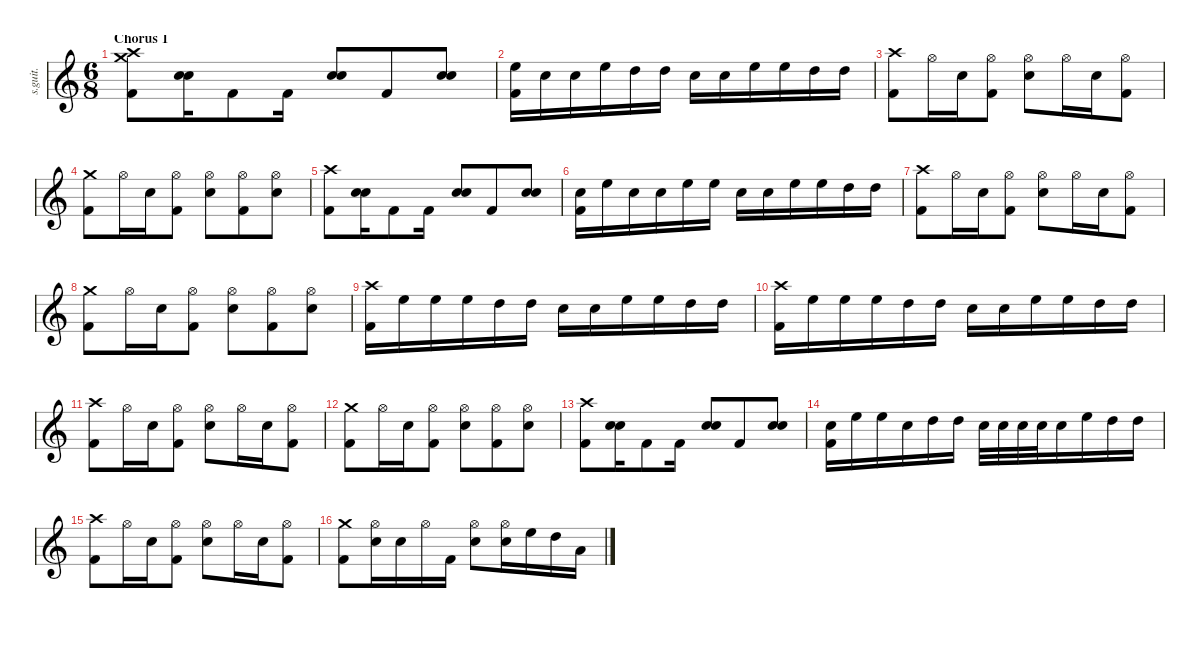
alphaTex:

\defaultSystemsLayout 4
\hideDynamics
\bracketExtendMode nobrackets
\track ("John Dolmayan" "s.guit.") {instrument percussion}
\staff {score}
\articulation defaults
\ts (6 8)
\section ("" "Chorus 1")
\tempo (120 hide)
\clef g2
\ks c
("Crash medium (hit)" "Crash high (hit)" "Kick (hit) 2").8{lyrics (0 "") lyrics (1 "") lyrics (2 "") lyrics (3 "") lyrics (4 "") dy f} ("Snare (hit) 2" "Snare (hit) 2").16{bu 30 lyrics (0 "") lyrics (1 "") lyrics (2 "") lyrics (3 "") lyrics (4 "")} "Kick (hit) 2".8{lyrics (0 "") lyrics (1 "") lyrics (2 "") lyrics (3 "") lyrics (4 "")} "Kick (hit) 2".16{lyrics (0 "") lyrics (1 "") lyrics (2 "") lyrics (3 "") lyrics (4 "")} ("Snare (hit) 2" "Snare (hit) 2").8{bu 30 lyrics (0 "") lyrics (1 "") lyrics (2 "") lyrics (3 "") lyrics (4 "")} "Kick (hit) 2".8{lyrics (0 "") lyrics (1 "") lyrics (2 "") lyrics (3 "") lyrics (4 "")} ("Snare (hit) 2" "Snare (hit) 2").8{bu 30 lyrics (0 "") lyrics (1 "") lyrics (2 "") lyrics (3 "") lyrics (4 "")} |
("Kick (hit) 2" "High Floor Tom (hit)").16{lyrics (0 "") lyrics (1 "") lyrics (2 "") lyrics (3 "") lyrics (4 "")} "Snare (hit) 2".16{lyrics (0 "") lyrics (1 "") lyrics (2 "") lyrics (3 "") lyrics (4 "")} "Snare (hit) 2".16{lyrics (0 "") lyrics (1 "") lyrics (2 "") lyrics (3 "") lyrics (4 "")} "High Floor Tom (hit)".16{lyrics (0 "") lyrics (1 "") lyrics (2 "") lyrics (3 "") lyrics (4 "")} "High Tom (hit)".16{lyrics (0 "") lyrics (1 "") lyrics (2 "") lyrics (3 "") lyrics (4 "")} "High Tom (hit)".16{lyrics (0 "") lyrics (1 "") lyrics (2 "") lyrics (3 "") lyrics (4 "")} "Snare (hit) 2".16{lyrics (0 "") lyrics (1 "") lyrics (2 "") lyrics (3 "") lyrics (4 "")} "Snare (hit) 2".16{lyrics (0 "") lyrics (1 "") lyrics (2 "") lyrics (3 "") lyrics (4 "")} "High Floor Tom (hit)".16{lyrics (0 "") lyrics (1 "") lyrics (2 "") lyrics (3 "") lyrics (4 "")} "High Floor Tom (hit)".16{lyrics (0 "") lyrics (1 "") lyrics (2 "") lyrics (3 "") lyrics (4 "")} "High Tom (hit)".16{lyrics (0 "") lyrics (1 "") lyrics (2 "") lyrics (3 "") lyrics (4 "")} "High Tom (hit)".16{lyrics (0 "") lyrics (1 "") lyrics (2 "") lyrics (3 "") lyrics (4 "")} |
("Crash high (hit)" "Kick (hit) 2").8{lyrics (0 "") lyrics (1 "") lyrics (2 "") lyrics (3 "") lyrics (4 "")} "Hi-Hat (open)".16{lyrics (0 "") lyrics (1 "") lyrics (2 "") lyrics (3 "") lyrics (4 "")} "Snare (hit) 2".16{lyrics (0 "") lyrics (1 "") lyrics (2 "") lyrics (3 "") lyrics (4 "")} ("Hi-Hat (open)" "Kick (hit) 2").8{lyrics (0 "") lyrics (1 "") lyrics (2 "") lyrics (3 "") lyrics (4 "")} ("Hi-Hat (open)" "Snare (hit) 2").8{lyrics (0 "") lyrics (1 "") lyrics (2 "") lyrics (3 "") lyrics (4 "")} "Hi-Hat (open)".16{lyrics (0 "") lyrics (1 "") lyrics (2 "") lyrics (3 "") lyrics (4 "")} "Snare (hit) 2".16{lyrics (0 "") lyrics (1 "") lyrics (2 "") lyrics (3 "") lyrics (4 "")} ("Hi-Hat (open)" "Kick (hit) 2").8{lyrics (0 "") lyrics (1 "") lyrics (2 "") lyrics (3 "") lyrics (4 "")} |
("Crash medium (hit)" "Kick (hit) 2").8{lyrics (0 "") lyrics (1 "") lyrics (2 "") lyrics (3 "") lyrics (4 "")} "Hi-Hat (open)".16{lyrics (0 "") lyrics (1 "") lyrics (2 "") lyrics (3 "") lyrics (4 "")} "Snare (hit) 2".16{lyrics (0 "") lyrics (1 "") lyrics (2 "") lyrics (3 "") lyrics (4 "")} ("Hi-Hat (open)" "Kick (hit) 2").8{lyrics (0 "") lyrics (1 "") lyrics (2 "") lyrics (3 "") lyrics (4 "")} ("Hi-Hat (open)" "Snare (hit) 2").8{lyrics (0 "") lyrics (1 "") lyrics (2 "") lyrics (3 "") lyrics (4 "")} ("Hi-Hat (open)" "Kick (hit) 2").8{lyrics (0 "") lyrics (1 "") lyrics (2 "") lyrics (3 "") lyrics (4 "")} ("Hi-Hat (open)" "Snare (hit) 2").8{lyrics (0 "") lyrics (1 "") lyrics (2 "") lyrics (3 "") lyrics (4 "")} |
("Crash high (hit)" "Kick (hit) 2").8{lyrics (0 "") lyrics (1 "") lyrics (2 "") lyrics (3 "") lyrics (4 "")} ("Snare (hit) 2" "Snare (hit) 2").16{bu 30 lyrics (0 "") lyrics (1 "") lyrics (2 "") lyrics (3 "") lyrics (4 "")} "Kick (hit) 2".8{lyrics (0 "") lyrics (1 "") lyrics (2 "") lyrics (3 "") lyrics (4 "")} "Kick (hit) 2".16{lyrics (0 "") lyrics (1 "") lyrics (2 "") lyrics (3 "") lyrics (4 "")} ("Snare (hit) 2" "Snare (hit) 2").8{bu 30 lyrics (0 "") lyrics (1 "") lyrics (2 "") lyrics (3 "") lyrics (4 "")} "Kick (hit) 2".8{lyrics (0 "") lyrics (1 "") lyrics (2 "") lyrics (3 "") lyrics (4 "")} ("Snare (hit) 2" "Snare (hit) 2").8{bu 30 lyrics (0 "") lyrics (1 "") lyrics (2 "") lyrics (3 "") lyrics (4 "")} |
("Kick (hit) 2" "Snare (hit) 2").16{lyrics (0 "") lyrics (1 "") lyrics (2 "") lyrics (3 "") lyrics (4 "")} "High Floor Tom (hit)".16{lyrics (0 "") lyrics (1 "") lyrics (2 "") lyrics (3 "") lyrics (4 "")} "Snare (hit) 2".16{lyrics (0 "") lyrics (1 "") lyrics (2 "") lyrics (3 "") lyrics (4 "")} "Snare (hit) 2".16{lyrics (0 "") lyrics (1 "") lyrics (2 "") lyrics (3 "") lyrics (4 "")} "High Floor Tom (hit)".16{lyrics (0 "") lyrics (1 "") lyrics (2 "") lyrics (3 "") lyrics (4 "")} "High Floor Tom (hit)".16{lyrics (0 "") lyrics (1 "") lyrics (2 "") lyrics (3 "") lyrics (4 "")} "Snare (hit) 2".16{lyrics (0 "") lyrics (1 "") lyrics (2 "") lyrics (3 "") lyrics (4 "")} "Snare (hit) 2".16{lyrics (0 "") lyrics (1 "") lyrics (2 "") lyrics (3 "") lyrics (4 "")} "High Floor Tom (hit)".16{lyrics (0 "") lyrics (1 "") lyrics (2 "") lyrics (3 "") lyrics (4 "")} "High Floor Tom (hit)".16{lyrics (0 "") lyrics (1 "") lyrics (2 "") lyrics (3 "") lyrics (4 "")} "High Tom (hit)".16{lyrics (0 "") lyrics (1 "") lyrics (2 "") lyrics (3 "") lyrics (4 "")} "High Tom (hit)".16{lyrics (0 "") lyrics (1 "") lyrics (2 "") lyrics (3 "") lyrics (4 "")} |
("Crash high (hit)" "Kick (hit) 2").8{lyrics (0 "") lyrics (1 "") lyrics (2 "") lyrics (3 "") lyrics (4 "")} "Hi-Hat (open)".16{lyrics (0 "") lyrics (1 "") lyrics (2 "") lyrics (3 "") lyrics (4 "")} "Snare (hit) 2".16{lyrics (0 "") lyrics (1 "") lyrics (2 "") lyrics (3 "") lyrics (4 "")} ("Hi-Hat (open)" "Kick (hit) 2").8{lyrics (0 "") lyrics (1 "") lyrics (2 "") lyrics (3 "") lyrics (4 "")} ("Hi-Hat (open)" "Snare (hit) 2").8{lyrics (0 "") lyrics (1 "") lyrics (2 "") lyrics (3 "") lyrics (4 "")} "Hi-Hat (open)".16{lyrics (0 "") lyrics (1 "") lyrics (2 "") lyrics (3 "") lyrics (4 "")} "Snare (hit) 2".16{lyrics (0 "") lyrics (1 "") lyrics (2 "") lyrics (3 "") lyrics (4 "")} ("Hi-Hat (open)" "Kick (hit) 2").8{lyrics (0 "") lyrics (1 "") lyrics (2 "") lyrics (3 "") lyrics (4 "")} |
("Crash medium (hit)" "Kick (hit) 2").8{lyrics (0 "") lyrics (1 "") lyrics (2 "") lyrics (3 "") lyrics (4 "")} "Hi-Hat (open)".16{lyrics (0 "") lyrics (1 "") lyrics (2 "") lyrics (3 "") lyrics (4 "")} "Snare (hit) 2".16{lyrics (0 "") lyrics (1 "") lyrics (2 "") lyrics (3 "") lyrics (4 "")} ("Hi-Hat (open)" "Kick (hit) 2").8{lyrics (0 "") lyrics (1 "") lyrics (2 "") lyrics (3 "") lyrics (4 "")} ("Hi-Hat (open)" "Snare (hit) 2").8{lyrics (0 "") lyrics (1 "") lyrics (2 "") lyrics (3 "") lyrics (4 "")} ("Hi-Hat (open)" "Kick (hit) 2").8{lyrics (0 "") lyrics (1 "") lyrics (2 "") lyrics (3 "") lyrics (4 "")} ("Hi-Hat (open)" "Snare (hit) 2").8{lyrics (0 "") lyrics (1 "") lyrics (2 "") lyrics (3 "") lyrics (4 "")} |
("Crash high (hit)" "Kick (hit) 2").16{lyrics (0 "") lyrics (1 "") lyrics (2 "") lyrics (3 "") lyrics (4 "")} "High Floor Tom (hit)".16{lyrics (0 "") lyrics (1 "") lyrics (2 "") lyrics (3 "") lyrics (4 "")} "High Floor Tom (hit)".16{lyrics (0 "") lyrics (1 "") lyrics (2 "") lyrics (3 "") lyrics (4 "")} "High Floor Tom (hit)".16{lyrics (0 "") lyrics (1 "") lyrics (2 "") lyrics (3 "") lyrics (4 "")} "High Tom (hit)".16{lyrics (0 "") lyrics (1 "") lyrics (2 "") lyrics (3 "") lyrics (4 "")} "High Tom (hit)".16{lyrics (0 "") lyrics (1 "") lyrics (2 "") lyrics (3 "") lyrics (4 "")} "Snare (hit) 2".16{lyrics (0 "") lyrics (1 "") lyrics (2 "") lyrics (3 "") lyrics (4 "")} "Snare (hit) 2".16{lyrics (0 "") lyrics (1 "") lyrics (2 "") lyrics (3 "") lyrics (4 "")} "High Floor Tom (hit)".16{lyrics (0 "") lyrics (1 "") lyrics (2 "") lyrics (3 "") lyrics (4 "")} "High Floor Tom (hit)".16{lyrics (0 "") lyrics (1 "") lyrics (2 "") lyrics (3 "") lyrics (4 "")} "High Tom (hit)".16{lyrics (0 "") lyrics (1 "") lyrics (2 "") lyrics (3 "") lyrics (4 "")} "High Tom (hit)".16{lyrics (0 "") lyrics (1 "") lyrics (2 "") lyrics (3 "") lyrics (4 "")} |
("Crash high (hit)" "Kick (hit) 2").16{lyrics (0 "") lyrics (1 "") lyrics (2 "") lyrics (3 "") lyrics (4 "")} "High Floor Tom (hit)".16{lyrics (0 "") lyrics (1 "") lyrics (2 "") lyrics (3 "") lyrics (4 "")} "High Floor Tom (hit)".16{lyrics (0 "") lyrics (1 "") lyrics (2 "") lyrics (3 "") lyrics (4 "")} "High Floor Tom (hit)".16{lyrics (0 "") lyrics (1 "") lyrics (2 "") lyrics (3 "") lyrics (4 "")} "High Tom (hit)".16{lyrics (0 "") lyrics (1 "") lyrics (2 "") lyrics (3 "") lyrics (4 "")} "High Tom (hit)".16{lyrics (0 "") lyrics (1 "") lyrics (2 "") lyrics (3 "") lyrics (4 "")} "Snare (hit) 2".16{lyrics (0 "") lyrics (1 "") lyrics (2 "") lyrics (3 "") lyrics (4 "")} "Snare (hit) 2".16{lyrics (0 "") lyrics (1 "") lyrics (2 "") lyrics (3 "") lyrics (4 "")} "High Floor Tom (hit)".16{lyrics (0 "") lyrics (1 "") lyrics (2 "") lyrics (3 "") lyrics (4 "")} "High Floor Tom (hit)".16{lyrics (0 "") lyrics (1 "") lyrics (2 "") lyrics (3 "") lyrics (4 "")} "High Tom (hit)".16{lyrics (0 "") lyrics (1 "") lyrics (2 "") lyrics (3 "") lyrics (4 "")} "High Tom (hit)".16{lyrics (0 "") lyrics (1 "") lyrics (2 "") lyrics (3 "") lyrics (4 "")} |
("Crash high (hit)" "Kick (hit) 2").8{lyrics (0 "") lyrics (1 "") lyrics (2 "") lyrics (3 "") lyrics (4 "")} "Hi-Hat (open)".16{lyrics (0 "") lyrics (1 "") lyrics (2 "") lyrics (3 "") lyrics (4 "")} "Snare (hit) 2".16{lyrics (0 "") lyrics (1 "") lyrics (2 "") lyrics (3 "") lyrics (4 "")} ("Hi-Hat (open)" "Kick (hit) 2").8{lyrics (0 "") lyrics (1 "") lyrics (2 "") lyrics (3 "") lyrics (4 "")} ("Hi-Hat (open)" "Snare (hit) 2").8{lyrics (0 "") lyrics (1 "") lyrics (2 "") lyrics (3 "") lyrics (4 "")} "Hi-Hat (open)".16{lyrics (0 "") lyrics (1 "") lyrics (2 "") lyrics (3 "") lyrics (4 "")} "Snare (hit) 2".16{lyrics (0 "") lyrics (1 "") lyrics (2 "") lyrics (3 "") lyrics (4 "")} ("Hi-Hat (open)" "Kick (hit) 2").8{lyrics (0 "") lyrics (1 "") lyrics (2 "") lyrics (3 "") lyrics (4 "")} |
("Crash medium (hit)" "Kick (hit) 2").8{lyrics (0 "") lyrics (1 "") lyrics (2 "") lyrics (3 "") lyrics (4 "")} "Hi-Hat (open)".16{lyrics (0 "") lyrics (1 "") lyrics (2 "") lyrics (3 "") lyrics (4 "")} "Snare (hit) 2".16{lyrics (0 "") lyrics (1 "") lyrics (2 "") lyrics (3 "") lyrics (4 "")} ("Hi-Hat (open)" "Kick (hit) 2").8{lyrics (0 "") lyrics (1 "") lyrics (2 "") lyrics (3 "") lyrics (4 "")} ("Hi-Hat (open)" "Snare (hit) 2").8{lyrics (0 "") lyrics (1 "") lyrics (2 "") lyrics (3 "") lyrics (4 "")} ("Hi-Hat (open)" "Kick (hit) 2").8{lyrics (0 "") lyrics (1 "") lyrics (2 "") lyrics (3 "") lyrics (4 "")} ("Hi-Hat (open)" "Snare (hit) 2").8{lyrics (0 "") lyrics (1 "") lyrics (2 "") lyrics (3 "") lyrics (4 "")} |
("Crash high (hit)" "Kick (hit) 2").8{lyrics (0 "") lyrics (1 "") lyrics (2 "") lyrics (3 "") lyrics (4 "")} ("Snare (hit) 2" "Snare (hit) 2").16{bu 30 lyrics (0 "") lyrics (1 "") lyrics (2 "") lyrics (3 "") lyrics (4 "")} "Kick (hit) 2".8{lyrics (0 "") lyrics (1 "") lyrics (2 "") lyrics (3 "") lyrics (4 "")} "Kick (hit) 2".16{lyrics (0 "") lyrics (1 "") lyrics (2 "") lyrics (3 "") lyrics (4 "")} ("Snare (hit) 2" "Snare (hit) 2").8{bu 30 lyrics (0 "") lyrics (1 "") lyrics (2 "") lyrics (3 "") lyrics (4 "")} "Kick (hit) 2".8{lyrics (0 "") lyrics (1 "") lyrics (2 "") lyrics (3 "") lyrics (4 "")} ("Snare (hit) 2" "Snare (hit) 2").8{bu 30 lyrics (0 "") lyrics (1 "") lyrics (2 "") lyrics (3 "") lyrics (4 "")} |
("Snare (hit) 2" "Kick (hit) 2").16{lyrics (0 "") lyrics (1 "") lyrics (2 "") lyrics (3 "") lyrics (4 "")} "High Floor Tom (hit)".16{lyrics (0 "") lyrics (1 "") lyrics (2 "") lyrics (3 "") lyrics (4 "")} "High Floor Tom (hit)".16{lyrics (0 "") lyrics (1 "") lyrics (2 "") lyrics (3 "") lyrics (4 "")} "Snare (hit) 2".16{lyrics (0 "") lyrics (1 "") lyrics (2 "") lyrics (3 "") lyrics (4 "")} "High Tom (hit)".16{lyrics (0 "") lyrics (1 "") lyrics (2 "") lyrics (3 "") lyrics (4 "")} "High Tom (hit)".16{lyrics (0 "") lyrics (1 "") lyrics (2 "") lyrics (3 "") lyrics (4 "")} "Snare (hit) 2".32{lyrics (0 "") lyrics (1 "") lyrics (2 "") lyrics (3 "") lyrics (4 "")} "Snare (hit) 2".32{lyrics (0 "") lyrics (1 "") lyrics (2 "") lyrics (3 "") lyrics (4 "")} "Snare (hit) 2".32{lyrics (0 "") lyrics (1 "") lyrics (2 "") lyrics (3 "") lyrics (4 "")} "Snare (hit) 2".32{lyrics (0 "") lyrics (1 "") lyrics (2 "") lyrics (3 "") lyrics (4 "")} "Snare (hit) 2".16{lyrics (0 "") lyrics (1 "") lyrics (2 "") lyrics (3 "") lyrics (4 "")} "High Floor Tom (hit)".16{lyrics (0 "") lyrics (1 "") lyrics (2 "") lyrics (3 "") lyrics (4 "")} "High Tom (hit)".16{lyrics (0 "") lyrics (1 "") lyrics (2 "") lyrics (3 "") lyrics (4 "")} "High Tom (hit)".16{lyrics (0 "") lyrics (1 "") lyrics (2 "") lyrics (3 "") lyrics (4 "")} |
("Crash high (hit)" "Kick (hit) 2").8{lyrics (0 "") lyrics (1 "") lyrics (2 "") lyrics (3 "") lyrics (4 "")} "Hi-Hat (open)".16{lyrics (0 "") lyrics (1 "") lyrics (2 "") lyrics (3 "") lyrics (4 "")} "Snare (hit) 2".16{lyrics (0 "") lyrics (1 "") lyrics (2 "") lyrics (3 "") lyrics (4 "")} ("Hi-Hat (open)" "Kick (hit) 2").8{lyrics (0 "") lyrics (1 "") lyrics (2 "") lyrics (3 "") lyrics (4 "")} ("Hi-Hat (open)" "Snare (hit) 2").8{lyrics (0 "") lyrics (1 "") lyrics (2 "") lyrics (3 "") lyrics (4 "")} "Hi-Hat (open)".16{lyrics (0 "") lyrics (1 "") lyrics (2 "") lyrics (3 "") lyrics (4 "")} "Snare (hit) 2".16{lyrics (0 "") lyrics (1 "") lyrics (2 "") lyrics (3 "") lyrics (4 "")} ("Hi-Hat (open)" "Kick (hit) 2").8{lyrics (0 "") lyrics (1 "") lyrics (2 "") lyrics (3 "") lyrics (4 "")} |
("Crash medium (hit)" "Kick (hit) 2").8{lyrics (0 "") lyrics (1 "") lyrics (2 "") lyrics (3 "") lyrics (4 "")} ("Hi-Hat (open)" "Snare (hit) 2").16{lyrics (0 "") lyrics (1 "") lyrics (2 "") lyrics (3 "") lyrics (4 "")} "Snare (hit) 2".16{lyrics (0 "") lyrics (1 "") lyrics (2 "") lyrics (3 "") lyrics (4 "")} "Hi-Hat (open)".16{lyrics (0 "") lyrics (1 "") lyrics (2 "") lyrics (3 "") lyrics (4 "")} "Kick (hit) 2".16{lyrics (0 "") lyrics (1 "") lyrics (2 "") lyrics (3 "") lyrics (4 "")} ("Hi-Hat (open)" "Snare (hit) 2").8{lyrics (0 "") lyrics (1 "") lyrics (2 "") lyrics (3 "") lyrics (4 "")} ("Hi-Hat (open)" "Snare (hit) 2").16{lyrics (0 "") lyrics (1 "") lyrics (2 "") lyrics (3 "") lyrics (4 "")} "High Floor Tom (hit)".16{lyrics (0 "") lyrics (1 "") lyrics (2 "") lyrics (3 "") lyrics (4 "")} "High Tom (hit)".16{lyrics (0 "") lyrics (1 "") lyrics (2 "") lyrics (3 "") lyrics (4 "")} "Low Tom (hit)".16{lyrics (0 "") lyrics (1 "") lyrics (2 "") lyrics (3 "") lyrics (4 "")}
